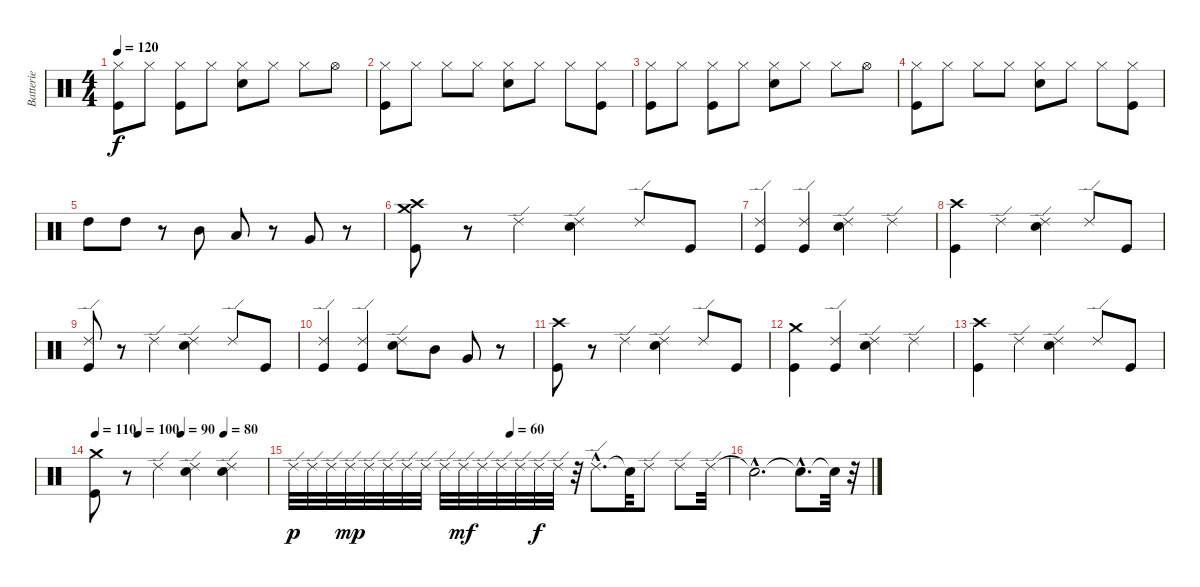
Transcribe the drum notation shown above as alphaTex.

\track ("Batterie" "Batterie") {instrument percussion}
\staff {score}
\articulation defaults
\ts (4 4)
\tempo 120
\clef neutral
\ks c
("Kick (hit)" "Hi-Hat (closed)").8{dy f} "Hi-Hat (closed)".8 ("Kick (hit)" "Hi-Hat (closed)").8 "Hi-Hat (closed)".8 ("Snare (hit) 2" "Hi-Hat (closed)").8 "Hi-Hat (closed)".8 "Hi-Hat (closed)".8 "Hi-Hat (open)".8 |
("Kick (hit)" "Hi-Hat (closed)").8 "Hi-Hat (closed)".8 "Hi-Hat (closed)".8 "Hi-Hat (closed)".8 ("Snare (hit) 2" "Hi-Hat (closed)").8 "Hi-Hat (closed)".8 "Hi-Hat (closed)".8 ("Kick (hit)" "Hi-Hat (closed)").8 |
("Kick (hit)" "Hi-Hat (closed)").8 "Hi-Hat (closed)".8 ("Kick (hit)" "Hi-Hat (closed)").8 "Hi-Hat (closed)".8 ("Snare (hit) 2" "Hi-Hat (closed)").8 "Hi-Hat (closed)".8 "Hi-Hat (closed)".8 "Hi-Hat (open)".8 |
("Hi-Hat (closed)" "Kick (hit)").8 "Hi-Hat (closed)".8 "Hi-Hat (closed)".8 "Hi-Hat (closed)".8 ("Snare (hit) 2" "Hi-Hat (closed)").8 "Hi-Hat (closed)".8 "Hi-Hat (closed)".8 ("Kick (hit)" "Hi-Hat (closed)").8 |
"High Tom (hit)".8 "High Tom (hit)".8 r.8 "Mid Tom (hit)".8 "Low Tom (hit)".8 r.8 "Very Low Tom (hit)".8 r.8 |
("Crash high (hit)" "Crash medium (hit)" "Kick (hit)").8 r.8 "Ride (edge) 2".4 ("Snare (hit) 2" "Ride (edge) 2").4 "Ride (edge) 2".8 "Kick (hit)".8 |
("Kick (hit)" "Ride (edge) 2").4 ("Ride (edge) 2" "Kick (hit)").4 ("Snare (hit) 2" "Ride (edge) 2").4 "Ride (edge) 2".4 |
("Crash high (hit)" "Kick (hit)").4 "Ride (edge) 2".4 ("Snare (hit) 2" "Ride (edge) 2").4 "Ride (edge) 2".8 "Kick (hit)".8 |
("Ride (edge) 2" "Kick (hit)").8 r.8 "Ride (edge) 2".4 ("Ride (edge) 2" "Snare (hit) 2").4 "Ride (edge) 2".8 "Kick (hit)".8 |
("Ride (edge) 2" "Kick (hit)").4 ("Kick (hit)" "Ride (edge) 2").4 ("Snare (hit) 2" "Ride (edge) 2").8 "Mid Tom (hit)".8 "Very Low Tom (hit)".8 r.8 |
("Kick (hit)" "Crash high (hit)").8 r.8 "Ride (edge) 2".4 ("Ride (edge) 2" "Snare (hit) 2").4 "Ride (edge) 2".8 "Kick (hit)".8 |
("Crash medium (hit)" "Kick (hit)").4 ("Kick (hit)" "Ride (edge) 2").4 ("Ride (edge) 2" "Snare (hit) 2").4 "Ride (edge) 2".4 |
("Crash high (hit)" "Kick (hit)").4 "Ride (edge) 2".4 ("Ride (edge) 2" "Snare (hit) 2").4 "Ride (edge) 2".8 "Kick (hit)".8 |
\tempo 110
\tempo (100 0.25)
\tempo (90 0.5)
\tempo (80 0.75)
("Kick (hit)" "Crash medium (hit)").8 r.8 "Ride (edge) 2".4 ("Ride (edge) 2" "Snare (hit) 2").4 ("Ride (edge) 2" "Snare (hit) 2").4 |
\tempo (60 0.5)
"Ride (edge) 2".32{dy p} "Ride (edge) 2".32 "Ride (edge) 2".32 "Ride (edge) 2".32{dy mp} "Ride (edge) 2".32 "Ride (edge) 2".32 "Ride (edge) 2".32 "Ride (edge) 2".32 "Ride (edge) 2".32 "Ride (edge) 2".32{dy mf} "Ride (edge) 2".32 "Ride (edge) 2".32 "Ride (edge) 2".32 "Ride (edge) 2".32{dy f} "Ride (edge) 2".32 r.32 "Ride (edge) 2"{hac}.8{d} "Snare (hit)"{t}.32 "Ride (edge) 2".8 "Ride (edge) 2".8 "Ride (edge) 2".32 |
"Snare (hit)"{hac t}.2{d} "Snare (hit)"{hac t}.8{d} "Snare (hit)"{t}.32 r.32
